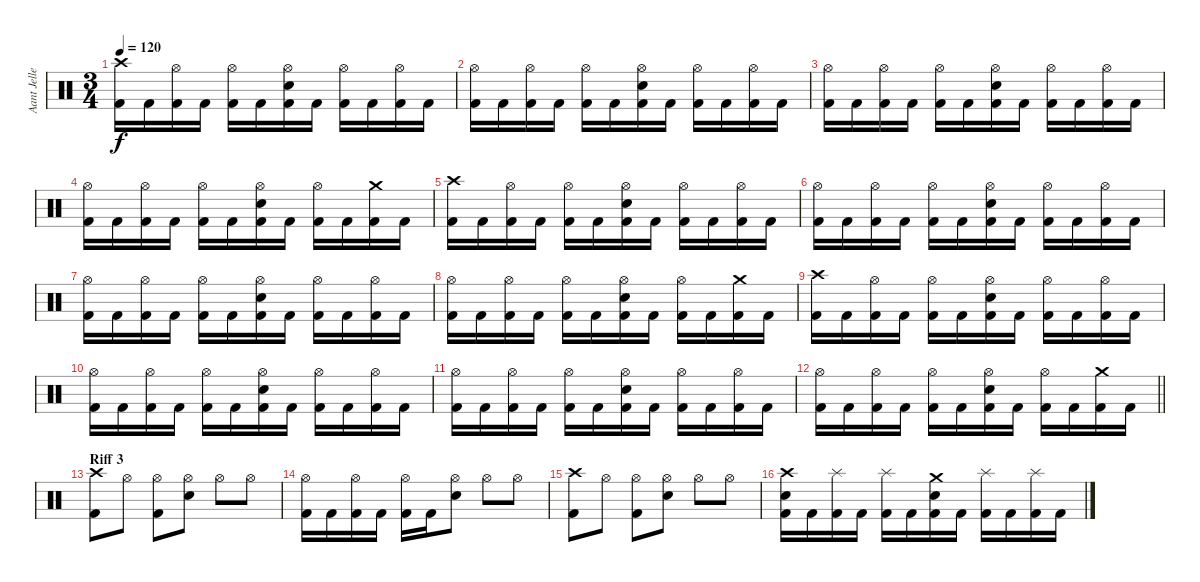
\track ("Aant Jelle" "Aant Jelle") {instrument percussion}
\staff {score}
\articulation defaults
\ts (3 4)
\tempo 120
\clef neutral
\ks c
("Crash high (hit)" "Kick (hit) 2").16{dy f} "Kick (hit) 2".16 ("Hi-Hat (open)" "Kick (hit) 2").16 "Kick (hit) 2".16 ("Hi-Hat (open)" "Kick (hit) 2").16 "Kick (hit) 2".16 ("Hi-Hat (open)" "Snare (hit) 2" "Kick (hit) 2").16 "Kick (hit) 2".16 ("Hi-Hat (open)" "Kick (hit) 2").16 "Kick (hit) 2".16 ("Hi-Hat (open)" "Kick (hit) 2").16 "Kick (hit) 2".16 |
("Hi-Hat (open)" "Kick (hit) 2").16 "Kick (hit) 2".16 ("Hi-Hat (open)" "Kick (hit) 2").16 "Kick (hit) 2".16 ("Hi-Hat (open)" "Kick (hit) 2").16 "Kick (hit) 2".16 ("Hi-Hat (open)" "Snare (hit) 2" "Kick (hit) 2").16 "Kick (hit) 2".16 ("Hi-Hat (open)" "Kick (hit) 2").16 "Kick (hit) 2".16 ("Hi-Hat (open)" "Kick (hit) 2").16 "Kick (hit) 2".16 |
("Hi-Hat (open)" "Kick (hit) 2").16 "Kick (hit) 2".16 ("Hi-Hat (open)" "Kick (hit) 2").16 "Kick (hit) 2".16 ("Hi-Hat (open)" "Kick (hit) 2").16 "Kick (hit) 2".16 ("Hi-Hat (open)" "Snare (hit) 2" "Kick (hit) 2").16 "Kick (hit) 2".16 ("Hi-Hat (open)" "Kick (hit) 2").16 "Kick (hit) 2".16 ("Hi-Hat (open)" "Kick (hit) 2").16 "Kick (hit) 2".16 |
("Hi-Hat (open)" "Kick (hit) 2").16 "Kick (hit) 2".16 ("Hi-Hat (open)" "Kick (hit) 2").16 "Kick (hit) 2".16 ("Hi-Hat (open)" "Kick (hit) 2").16 "Kick (hit) 2".16 ("Hi-Hat (open)" "Snare (hit) 2" "Kick (hit) 2").16 "Kick (hit) 2".16 ("Hi-Hat (open)" "Kick (hit) 2").16 "Kick (hit) 2".16 ("Crash medium (hit)" "Kick (hit) 2").16 "Kick (hit) 2".16 |
("Crash high (hit)" "Kick (hit) 2").16 "Kick (hit) 2".16 ("Hi-Hat (open)" "Kick (hit) 2").16 "Kick (hit) 2".16 ("Hi-Hat (open)" "Kick (hit) 2").16 "Kick (hit) 2".16 ("Hi-Hat (open)" "Snare (hit) 2" "Kick (hit) 2").16 "Kick (hit) 2".16 ("Hi-Hat (open)" "Kick (hit) 2").16 "Kick (hit) 2".16 ("Hi-Hat (open)" "Kick (hit) 2").16 "Kick (hit) 2".16 |
("Hi-Hat (open)" "Kick (hit) 2").16 "Kick (hit) 2".16 ("Hi-Hat (open)" "Kick (hit) 2").16 "Kick (hit) 2".16 ("Hi-Hat (open)" "Kick (hit) 2").16 "Kick (hit) 2".16 ("Hi-Hat (open)" "Snare (hit) 2" "Kick (hit) 2").16 "Kick (hit) 2".16 ("Hi-Hat (open)" "Kick (hit) 2").16 "Kick (hit) 2".16 ("Hi-Hat (open)" "Kick (hit) 2").16 "Kick (hit) 2".16 |
("Hi-Hat (open)" "Kick (hit) 2").16 "Kick (hit) 2".16 ("Hi-Hat (open)" "Kick (hit) 2").16 "Kick (hit) 2".16 ("Hi-Hat (open)" "Kick (hit) 2").16 "Kick (hit) 2".16 ("Hi-Hat (open)" "Snare (hit) 2" "Kick (hit) 2").16 "Kick (hit) 2".16 ("Hi-Hat (open)" "Kick (hit) 2").16 "Kick (hit) 2".16 ("Hi-Hat (open)" "Kick (hit) 2").16 "Kick (hit) 2".16 |
("Hi-Hat (open)" "Kick (hit) 2").16 "Kick (hit) 2".16 ("Hi-Hat (open)" "Kick (hit) 2").16 "Kick (hit) 2".16 ("Hi-Hat (open)" "Kick (hit) 2").16 "Kick (hit) 2".16 ("Hi-Hat (open)" "Snare (hit) 2" "Kick (hit) 2").16 "Kick (hit) 2".16 ("Hi-Hat (open)" "Kick (hit) 2").16 "Kick (hit) 2".16 ("Crash medium (hit)" "Kick (hit) 2").16 "Kick (hit) 2".16 |
("Crash high (hit)" "Kick (hit) 2").16 "Kick (hit) 2".16 ("Hi-Hat (open)" "Kick (hit) 2").16 "Kick (hit) 2".16 ("Hi-Hat (open)" "Kick (hit) 2").16 "Kick (hit) 2".16 ("Hi-Hat (open)" "Snare (hit) 2" "Kick (hit) 2").16 "Kick (hit) 2".16 ("Hi-Hat (open)" "Kick (hit) 2").16 "Kick (hit) 2".16 ("Hi-Hat (open)" "Kick (hit) 2").16 "Kick (hit) 2".16 |
("Hi-Hat (open)" "Kick (hit) 2").16 "Kick (hit) 2".16 ("Hi-Hat (open)" "Kick (hit) 2").16 "Kick (hit) 2".16 ("Hi-Hat (open)" "Kick (hit) 2").16 "Kick (hit) 2".16 ("Hi-Hat (open)" "Snare (hit) 2" "Kick (hit) 2").16 "Kick (hit) 2".16 ("Hi-Hat (open)" "Kick (hit) 2").16 "Kick (hit) 2".16 ("Hi-Hat (open)" "Kick (hit) 2").16 "Kick (hit) 2".16 |
("Hi-Hat (open)" "Kick (hit) 2").16 "Kick (hit) 2".16 ("Hi-Hat (open)" "Kick (hit) 2").16 "Kick (hit) 2".16 ("Hi-Hat (open)" "Kick (hit) 2").16 "Kick (hit) 2".16 ("Hi-Hat (open)" "Snare (hit) 2" "Kick (hit) 2").16 "Kick (hit) 2".16 ("Hi-Hat (open)" "Kick (hit) 2").16 "Kick (hit) 2".16 ("Hi-Hat (open)" "Kick (hit) 2").16 "Kick (hit) 2".16 |
\barLineRight lightlight
("Hi-Hat (open)" "Kick (hit) 2").16 "Kick (hit) 2".16 ("Hi-Hat (open)" "Kick (hit) 2").16 "Kick (hit) 2".16 ("Hi-Hat (open)" "Kick (hit) 2").16 "Kick (hit) 2".16 ("Hi-Hat (open)" "Snare (hit) 2" "Kick (hit) 2").16 "Kick (hit) 2".16 ("Hi-Hat (open)" "Kick (hit) 2").16 "Kick (hit) 2".16 ("Crash medium (hit)" "Kick (hit) 2").16 "Kick (hit) 2".16 |
\section ("" "Riff 3")
("Crash high (hit)" "Kick (hit) 2").8 "Hi-Hat (open)".8 ("Hi-Hat (open)" "Kick (hit) 2").8 ("Hi-Hat (open)" "Snare (hit) 2").8 "Hi-Hat (open)".8 "Hi-Hat (open)".8 |
("Hi-Hat (open)" "Kick (hit) 2").16 "Kick (hit) 2".16 ("Hi-Hat (open)" "Kick (hit) 2").16 "Kick (hit) 2".16 ("Hi-Hat (open)" "Kick (hit) 2").16 "Kick (hit) 2".16 ("Hi-Hat (open)" "Snare (hit) 2").8 "Hi-Hat (open)".8 "Hi-Hat (open)".8 |
("Crash high (hit)" "Kick (hit) 2").8 "Hi-Hat (open)".8 ("Hi-Hat (open)" "Kick (hit) 2").8 ("Hi-Hat (open)" "Snare (hit) 2").8 "Hi-Hat (open)".8 "Hi-Hat (open)".8 |
("Crash high (hit)" "Snare (hit) 2" "Kick (hit) 2").16 "Kick (hit) 2".16 ("Splash (hit)" "Kick (hit) 2").16 "Kick (hit) 2".16 ("Splash (hit)" "Kick (hit) 2").16 "Kick (hit) 2".16 ("Crash medium (hit)" "Snare (hit) 2" "Kick (hit) 2").16 "Kick (hit) 2".16 ("Splash (hit)" "Kick (hit) 2").16 "Kick (hit) 2".16 ("Splash (hit)" "Kick (hit) 2").16 "Kick (hit) 2".16
